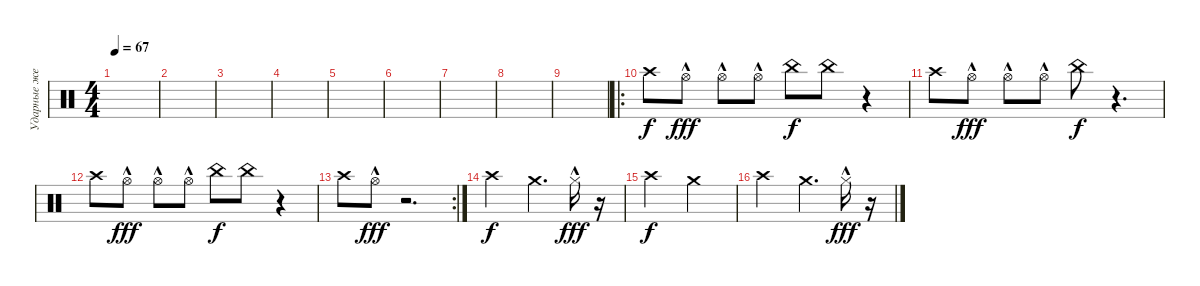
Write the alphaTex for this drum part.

\track ("Ударные железо" "Ударные же") {instrument percussion}
\staff {score}
\articulation defaults
\ts (4 4)
\tempo 67
\clef neutral
\ks c
|
|
|
|
|
|
|
|
|
\ro "Crash high (hit)".8 "Hi-Hat (open)"{hac}.8{dy fff} "Hi-Hat (open)"{hac}.8 "Hi-Hat (open)"{hac}.8 "China (hit)".8{dy f} "China (hit)".8
r.4 |
"Crash high (hit)".8 "Hi-Hat (open)"{hac}.8{dy fff} "Hi-Hat (open)"{hac}.8 "Hi-Hat (open)"{hac}.8 "China (hit)".8{dy f} r.4{d} |
"Crash high (hit)".8 "Hi-Hat (open)"{hac}.8{dy fff} "Hi-Hat (open)"{hac}.8 "Hi-Hat (open)"{hac}.8 "China (hit)".8{dy f} "China (hit)".8 r.4 |
\rc 2 "Crash high (hit)".8 "Hi-Hat (open)"{hac}.8{dy fff}
r.2{d} |
"Crash high (hit)".2{dy f} "Crash medium (hit)".4{d} "Hi-Hat (closed)"{hac}.16{dy fff} r.16 |
"Crash high (hit)".2{dy f} "Crash medium (hit)".2 |
"Crash high (hit)".2 "Crash medium (hit)".4{d} "Hi-Hat (closed)"{hac}.16{dy fff} r.16
